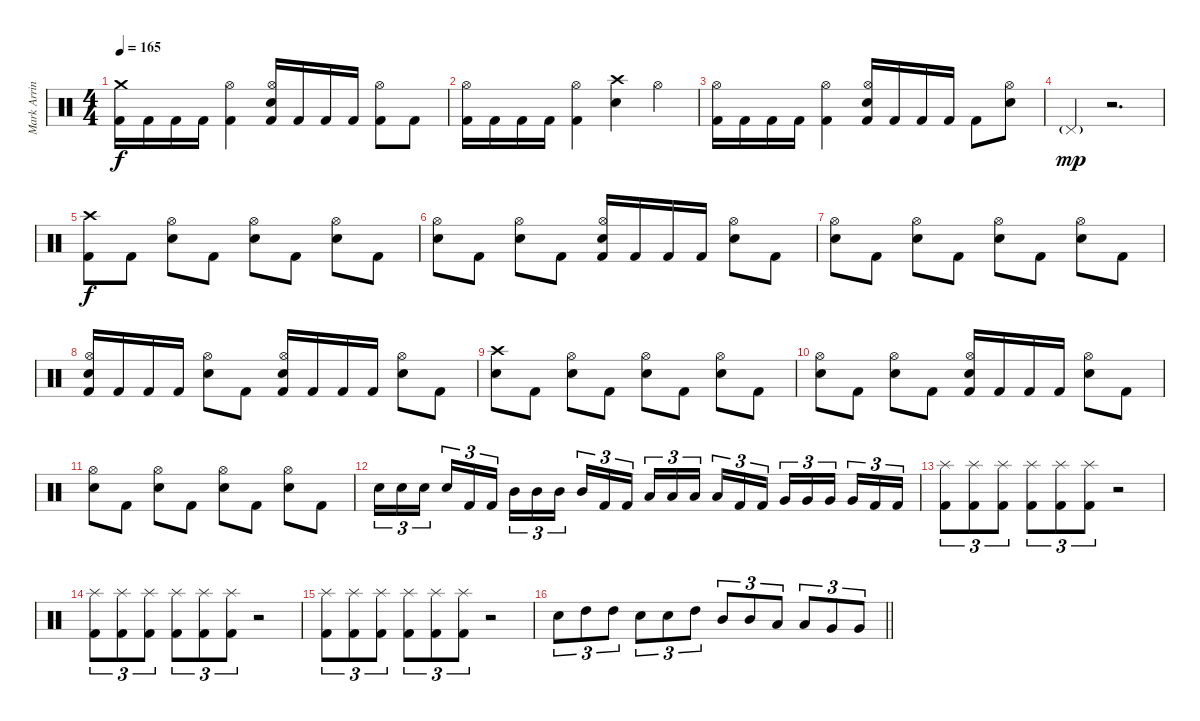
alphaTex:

\track ("Mark Arrington Drums" "Mark Arrin") {instrument percussion}
\staff {score}
\articulation defaults
\ts (4 4)
\tempo 165
\clef neutral
\ks c
("Crash medium (hit)" "Kick (hit) 2").16{dy f} "Kick (hit) 2".16 "Kick (hit) 2".16 "Kick (hit) 2".16 ("Hi-Hat (open)" "Kick (hit) 2").4 ("Hi-Hat (open)" "Electric Snare (hit)" "Kick (hit) 2").16 "Kick (hit) 2".16 "Kick (hit) 2".16 "Kick (hit) 2".16 ("Hi-Hat (open)" "Kick (hit) 2").8 "Kick (hit) 2".8 |
("Hi-Hat (open)" "Kick (hit) 2").16 "Kick (hit) 2".16 "Kick (hit) 2".16 "Kick (hit) 2".16 ("Hi-Hat (open)" "Kick (hit) 2").4 ("Crash high (hit)" "Electric Snare (hit)").4 "Hi-Hat (open)".4 |
("Hi-Hat (open)" "Kick (hit) 2").16 "Kick (hit) 2".16 "Kick (hit) 2".16 "Kick (hit) 2".16 ("Hi-Hat (open)" "Kick (hit) 2").4 ("Hi-Hat (open)" "Electric Snare (hit)" "Kick (hit) 2").16 "Kick (hit) 2".16 "Kick (hit) 2".16 "Kick (hit) 2".16 "Kick (hit) 2".8 ("Hi-Hat (open)" "Electric Snare (hit)").8 |
"Pedal Hi-Hat (hit)"{g}.4{dy mp} r.2{d} |
("Crash high (hit)" "Kick (hit) 2").8{dy f} "Kick (hit) 2".8 ("Hi-Hat (open)" "Electric Snare (hit)").8 "Kick (hit) 2".8 ("Hi-Hat (open)" "Electric Snare (hit)").8 "Kick (hit) 2".8 ("Hi-Hat (open)" "Electric Snare (hit)").8 "Kick (hit) 2".8 |
("Hi-Hat (open)" "Electric Snare (hit)").8 "Kick (hit) 2".8 ("Hi-Hat (open)" "Electric Snare (hit)").8 "Kick (hit) 2".8 ("Hi-Hat (open)" "Electric Snare (hit)" "Kick (hit) 2").16 "Kick (hit) 2".16 "Kick (hit) 2".16 "Kick (hit) 2".16 ("Hi-Hat (open)" "Electric Snare (hit)").8 "Kick (hit) 2".8 |
("Hi-Hat (open)" "Electric Snare (hit)").8 "Kick (hit) 2".8 ("Hi-Hat (open)" "Electric Snare (hit)").8 "Kick (hit) 2".8 ("Hi-Hat (open)" "Electric Snare (hit)").8 "Kick (hit) 2".8 ("Hi-Hat (open)" "Electric Snare (hit)").8 "Kick (hit) 2".8 |
("Hi-Hat (open)" "Electric Snare (hit)" "Kick (hit) 2").16 "Kick (hit) 2".16 "Kick (hit) 2".16 "Kick (hit) 2".16 ("Hi-Hat (open)" "Electric Snare (hit)").8 "Kick (hit) 2".8 ("Hi-Hat (open)" "Electric Snare (hit)" "Kick (hit) 2").16 "Kick (hit) 2".16 "Kick (hit) 2".16 "Kick (hit) 2".16 ("Hi-Hat (open)" "Electric Snare (hit)").8 "Kick (hit) 2".8 |
("Crash high (hit)" "Electric Snare (hit)").8 "Kick (hit) 2".8 ("Hi-Hat (open)" "Electric Snare (hit)").8 "Kick (hit) 2".8 ("Hi-Hat (open)" "Electric Snare (hit)").8 "Kick (hit) 2".8 ("Hi-Hat (open)" "Electric Snare (hit)").8 "Kick (hit) 2".8 |
("Hi-Hat (open)" "Electric Snare (hit)").8 "Kick (hit) 2".8 ("Hi-Hat (open)" "Electric Snare (hit)").8 "Kick (hit) 2".8 ("Hi-Hat (open)" "Electric Snare (hit)" "Kick (hit) 2").16 "Kick (hit) 2".16 "Kick (hit) 2".16 "Kick (hit) 2".16 ("Hi-Hat (open)" "Electric Snare (hit)").8 "Kick (hit) 2".8 |
("Hi-Hat (open)" "Electric Snare (hit)").8 "Kick (hit) 2".8 ("Hi-Hat (open)" "Electric Snare (hit)").8 "Kick (hit) 2".8 ("Hi-Hat (open)" "Electric Snare (hit)").8 "Kick (hit) 2".8 ("Hi-Hat (open)" "Electric Snare (hit)").8 "Kick (hit) 2".8 |
"Electric Snare (hit)".16{tu (3 2)} "Electric Snare (hit)".16{tu (3 2)} "Electric Snare (hit)".16{tu (3 2) beam splitsecondary} "Electric Snare (hit)".16{tu (3 2)} "Kick (hit) 2".16{tu (3 2)} "Kick (hit) 2".16{tu (3 2)} "Mid Tom (hit)".16{tu (3 2)} "Mid Tom (hit)".16{tu (3 2)} "Mid Tom (hit)".16{tu (3 2) beam splitsecondary} "Mid Tom (hit)".16{tu (3 2)} "Kick (hit) 2".16{tu (3 2)} "Kick (hit) 2".16{tu (3 2)} "Low Tom (hit)".16{tu (3 2)} "Low Tom (hit)".16{tu (3 2)} "Low Tom (hit)".16{tu (3 2) beam splitsecondary} "Low Tom (hit)".16{tu (3 2)} "Kick (hit) 2".16{tu (3 2)} "Kick (hit) 2".16{tu (3 2)} "Very Low Tom (hit)".16{tu (3 2)} "Very Low Tom (hit)".16{tu (3 2)} "Very Low Tom (hit)".16{tu (3 2) beam splitsecondary} "Very Low Tom (hit)".16{tu (3 2)} "Kick (hit) 2".16{tu (3 2)} "Kick (hit) 2".16{tu (3 2)} |
("Splash (hit)" "Kick (hit) 2").8{tu (3 2)} ("Splash (hit)" "Kick (hit) 2").8{tu (3 2)} ("Splash (hit)" "Kick (hit) 2").8{tu (3 2)} ("Splash (hit)" "Kick (hit) 2").8{tu (3 2)} ("Splash (hit)" "Kick (hit) 2").8{tu (3 2)} ("Splash (hit)" "Kick (hit) 2").8{tu (3 2)} r.2 |
("Splash (hit)" "Kick (hit) 2").8{tu (3 2)} ("Splash (hit)" "Kick (hit) 2").8{tu (3 2)} ("Splash (hit)" "Kick (hit) 2").8{tu (3 2)} ("Splash (hit)" "Kick (hit) 2").8{tu (3 2)} ("Splash (hit)" "Kick (hit) 2").8{tu (3 2)} ("Splash (hit)" "Kick (hit) 2").8{tu (3 2)} r.2 |
("Splash (hit)" "Kick (hit) 2").8{tu (3 2)} ("Splash (hit)" "Kick (hit) 2").8{tu (3 2)} ("Splash (hit)" "Kick (hit) 2").8{tu (3 2)} ("Splash (hit)" "Kick (hit) 2").8{tu (3 2)} ("Splash (hit)" "Kick (hit) 2").8{tu (3 2)} ("Splash (hit)" "Kick (hit) 2").8{tu (3 2)} r.2 |
\barLineRight lightlight "Electric Snare (hit)".8{tu (3 2)} "High Tom (hit)".8{tu (3 2)} "High Tom (hit)".8{tu (3 2)} "Electric Snare (hit)".8{tu (3 2)} "Electric Snare (hit)".8{tu (3 2)} "High Tom (hit)".8{tu (3 2)} "Mid Tom (hit)".8{tu (3 2)} "Mid Tom (hit)".8{tu (3 2)} "Low Tom (hit)".8{tu (3 2)} "Low Tom (hit)".8{tu (3 2)} "Very Low Tom (hit)".8{tu (3 2)} "Very Low Tom (hit)".8{tu (3 2)}
